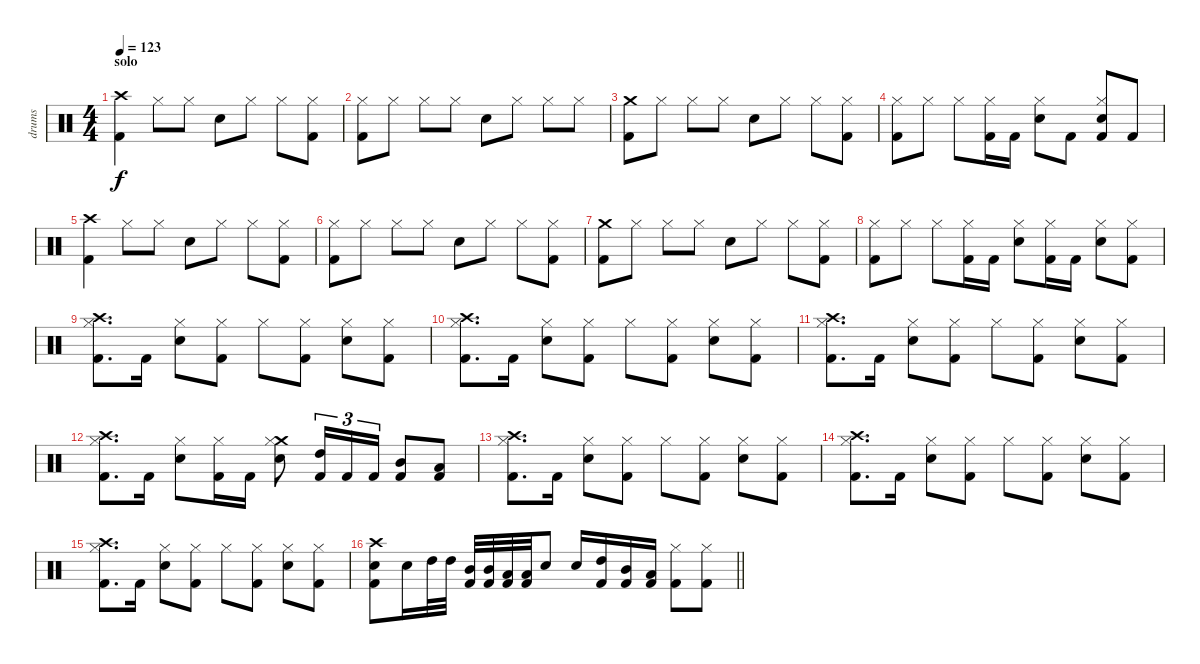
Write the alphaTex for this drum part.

\track ("drums" "drums") {instrument percussion}
\staff {score}
\articulation defaults
\ts (4 4)
\section ("" "solo")
\tempo 123
\clef neutral
\ks c
("Crash high (hit)" "Kick (hit) 2").4{dy f} "Hi-Hat (closed)".8 "Hi-Hat (closed)".8 "Snare (hit) 2".8 "Hi-Hat (closed)".8 "Hi-Hat (closed)".8 ("Hi-Hat (closed)" "Kick (hit) 2").8 |
("Hi-Hat (closed)" "Kick (hit) 2").8 "Hi-Hat (closed)".8 "Hi-Hat (closed)".8 "Hi-Hat (closed)".8 "Snare (hit) 2".8 "Hi-Hat (closed)".8 "Hi-Hat (closed)".8 "Hi-Hat (closed)".8 |
("Crash medium (hit)" "Kick (hit) 2").8 "Hi-Hat (closed)".8 "Hi-Hat (closed)".8 "Hi-Hat (closed)".8 "Snare (hit) 2".8 "Hi-Hat (closed)".8 "Hi-Hat (closed)".8 ("Hi-Hat (closed)" "Kick (hit) 2").8 |
("Hi-Hat (closed)" "Kick (hit) 2").8 "Hi-Hat (closed)".8 "Hi-Hat (closed)".8 ("Hi-Hat (closed)" "Kick (hit) 2").16 "Kick (hit) 2".16 ("Hi-Hat (closed)" "Snare (hit) 2").8 "Kick (hit) 2".8 ("Hi-Hat (closed)" "Snare (hit) 2" "Kick (hit) 2").8 "Kick (hit) 2".8 |
("Crash high (hit)" "Kick (hit) 2").4 "Hi-Hat (closed)".8 "Hi-Hat (closed)".8 "Snare (hit) 2".8 "Hi-Hat (closed)".8 "Hi-Hat (closed)".8 ("Hi-Hat (closed)" "Kick (hit) 2").8 |
("Hi-Hat (closed)" "Kick (hit) 2").8 "Hi-Hat (closed)".8 "Hi-Hat (closed)".8 "Hi-Hat (closed)".8 "Snare (hit) 2".8 "Hi-Hat (closed)".8 "Hi-Hat (closed)".8 ("Hi-Hat (closed)" "Kick (hit) 2").8 |
("Crash medium (hit)" "Kick (hit) 2").8 "Hi-Hat (closed)".8 "Hi-Hat (closed)".8 "Hi-Hat (closed)".8 "Snare (hit) 2".8 "Hi-Hat (closed)".8 "Hi-Hat (closed)".8 ("Hi-Hat (closed)" "Kick (hit) 2").8 |
("Hi-Hat (closed)" "Kick (hit) 2").8 "Hi-Hat (closed)".8 "Hi-Hat (closed)".8 ("Hi-Hat (closed)" "Kick (hit) 2").16 "Kick (hit) 2".16 ("Hi-Hat (closed)" "Snare (hit) 2").8 ("Hi-Hat (closed)" "Kick (hit) 2").16 "Kick (hit) 2".16 ("Hi-Hat (closed)" "Snare (hit) 2").8 ("Hi-Hat (closed)" "Kick (hit) 2").8 |
("Crash high (hit)" "Hi-Hat (closed)" "Kick (hit) 2").8{d} "Kick (hit) 2".16 ("Hi-Hat (closed)" "Snare (hit) 2").8 ("Hi-Hat (closed)" "Kick (hit) 2").8 "Hi-Hat (closed)".8 ("Hi-Hat (closed)" "Kick (hit) 2").8 ("Hi-Hat (closed)" "Snare (hit) 2").8 ("Hi-Hat (closed)" "Kick (hit) 2").8 |
("Crash high (hit)" "Hi-Hat (closed)" "Kick (hit) 2").8{d} "Kick (hit) 2".16 ("Hi-Hat (closed)" "Snare (hit) 2").8 ("Hi-Hat (closed)" "Kick (hit) 2").8 "Hi-Hat (closed)".8 ("Hi-Hat (closed)" "Kick (hit) 2").8 ("Hi-Hat (closed)" "Snare (hit) 2").8 ("Hi-Hat (closed)" "Kick (hit) 2").8 |
("Crash high (hit)" "Hi-Hat (closed)" "Kick (hit) 2").8{d} "Kick (hit) 2".16 ("Hi-Hat (closed)" "Snare (hit) 2").8 ("Hi-Hat (closed)" "Kick (hit) 2").8 "Hi-Hat (closed)".8 ("Hi-Hat (closed)" "Kick (hit) 2").8 ("Hi-Hat (closed)" "Snare (hit) 2").8 ("Hi-Hat (closed)" "Kick (hit) 2").8 |
("Crash high (hit)" "Hi-Hat (closed)" "Kick (hit) 2").8{d} "Kick (hit) 2".16 ("Hi-Hat (closed)" "Snare (hit) 2").8 ("Hi-Hat (closed)" "Kick (hit) 2").16 "Kick (hit) 2".16 ("Crash medium (hit)" "Hi-Hat (closed)" "Snare (hit) 2").8 ("High Tom (hit)" "Kick (hit) 2").16{tu (3 2)} "Kick (hit) 2".16{tu (3 2)} "Kick (hit) 2".16{tu (3 2)} ("Mid Tom (hit)" "Kick (hit) 2").8 ("Low Tom (hit)" "Kick (hit) 2").8 |
("Crash high (hit)" "Hi-Hat (closed)" "Kick (hit) 2").8{d} "Kick (hit) 2".16 ("Hi-Hat (closed)" "Snare (hit) 2").8 ("Hi-Hat (closed)" "Kick (hit) 2").8 "Hi-Hat (closed)".8 ("Hi-Hat (closed)" "Kick (hit) 2").8 ("Hi-Hat (closed)" "Snare (hit) 2").8 ("Hi-Hat (closed)" "Kick (hit) 2").8 |
("Crash high (hit)" "Hi-Hat (closed)" "Kick (hit) 2").8{d} "Kick (hit) 2".16 ("Hi-Hat (closed)" "Snare (hit) 2").8 ("Hi-Hat (closed)" "Kick (hit) 2").8 "Hi-Hat (closed)".8 ("Hi-Hat (closed)" "Kick (hit) 2").8 ("Hi-Hat (closed)" "Snare (hit) 2").8 ("Hi-Hat (closed)" "Kick (hit) 2").8 |
("Crash high (hit)" "Hi-Hat (closed)" "Kick (hit) 2").8{d} "Kick (hit) 2".16 ("Hi-Hat (closed)" "Snare (hit) 2").8 ("Hi-Hat (closed)" "Kick (hit) 2").8 "Hi-Hat (closed)".8 ("Hi-Hat (closed)" "Kick (hit) 2").8 ("Hi-Hat (closed)" "Snare (hit) 2").8 ("Hi-Hat (closed)" "Kick (hit) 2").8 |
\barLineRight lightlight
("Crash high (hit)" "Snare (hit) 2" "Kick (hit) 2").8 "Snare (hit) 2".16 "High Tom (hit)".32 "High Tom (hit)".32 ("Mid Tom (hit)" "Kick (hit) 2").32 ("Mid Tom (hit)" "Kick (hit) 2").32 ("Low Tom (hit)" "Kick (hit) 2").32 ("Low Tom (hit)" "Kick (hit) 2").32 "Snare (hit) 2".8 "Snare (hit) 2".16 ("High Tom (hit)" "Kick (hit) 2").16 ("Mid Tom (hit)" "Kick (hit) 2").16 ("Low Tom (hit)" "Kick (hit) 2").16 ("Hi-Hat (closed)" "Kick (hit) 2").8 ("Hi-Hat (closed)" "Kick (hit) 2").8
